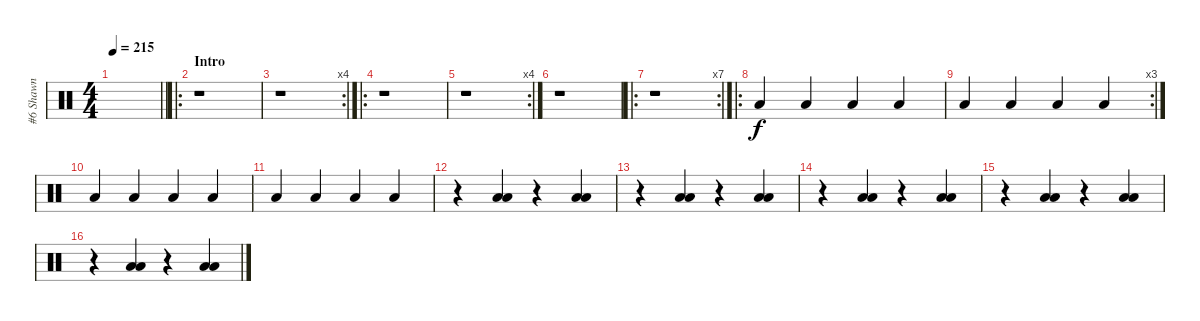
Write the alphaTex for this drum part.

\track ("#6 Shawn" "#6 Shawn") {instrument percussion}
\staff {score}
\articulation defaults
\ts (4 4)
\tempo 215
\clef neutral
\barLineRight lightlight
\ks c
|
\ro
\section ("" "Intro")
r.1 |
\rc 4
r.1 |
\ro
r.1 |
\rc 4
r.1 |
r.1 |
\ro
\rc 7
r.1 |
\ro "Low Tom (hit)".4 "Low Tom (hit)".4 "Low Floor Tom (hit)".4 "Low Floor Tom (hit)".4
|
\rc 3 "Low Tom (hit)".4 "Low Tom (hit)".4 "Low Floor Tom (hit)".4 "Low Floor Tom (hit)".4
|
"Low Tom (hit)".4 "Low Tom (hit)".4 "Low Floor Tom (hit)".4 "Low Floor Tom (hit)".4 |
"Low Tom (hit)".4 "Low Tom (hit)".4 "Low Floor Tom (hit)".4 "Low Floor Tom (hit)".4 |
r.4 ("Low Floor Tom (hit)" "Low Floor Tom (hit)").4{dy f} r.4 ("Low Floor Tom (hit)" "Low Floor Tom (hit)").4 |
r.4 ("Low Floor Tom (hit)" "Low Floor Tom (hit)").4 r.4 ("Low Floor Tom (hit)" "Low Floor Tom (hit)").4 |
r.4 ("Low Floor Tom (hit)" "Low Floor Tom (hit)").4 r.4 ("Low Floor Tom (hit)" "Low Floor Tom (hit)").4 |
r.4 ("Low Floor Tom (hit)" "Low Floor Tom (hit)").4 r.4 ("Low Floor Tom (hit)" "Low Floor Tom (hit)").4 |
r.4 ("Low Floor Tom (hit)" "Low Floor Tom (hit)").4 r.4 ("Low Floor Tom (hit)" "Low Floor Tom (hit)").4
